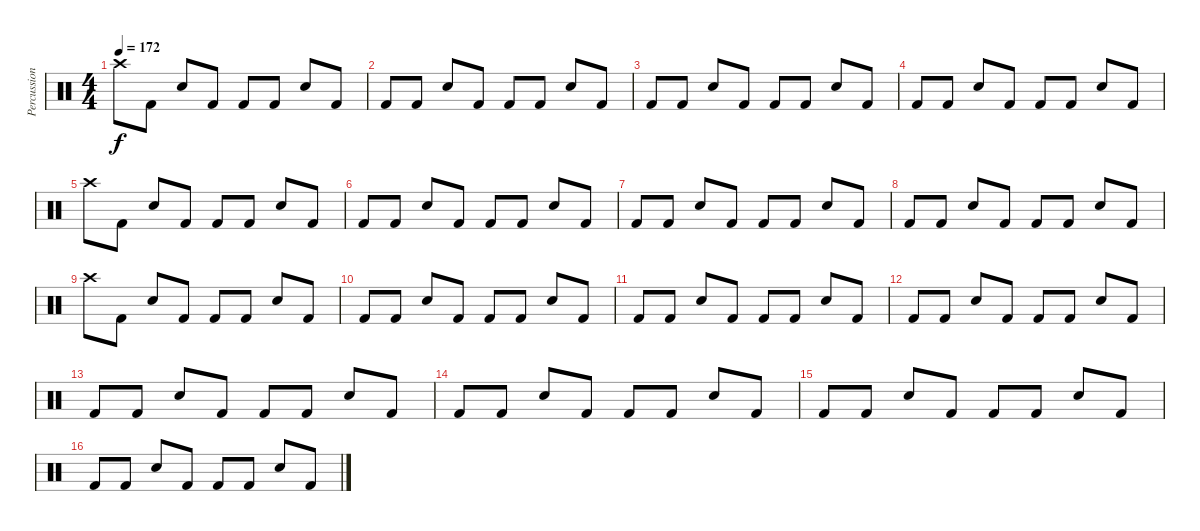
\track ("Percussion" "Percussion") {instrument percussion}
\staff {score}
\articulation defaults
\ts (4 4)
\tempo 172
\clef neutral
\ks c "Crash high (hit)".8{dy f} "Kick (hit) 2".8 "Snare (hit) 2".8 "Kick (hit) 2".8 "Kick (hit) 2".8 "Kick (hit) 2".8 "Snare (hit) 2".8 "Kick (hit) 2".8
|
"Kick (hit) 2".8 "Kick (hit) 2".8 "Snare (hit) 2".8 "Kick (hit) 2".8 "Kick (hit) 2".8 "Kick (hit) 2".8 "Snare (hit) 2".8 "Kick (hit) 2".8 |
"Kick (hit) 2".8 "Kick (hit) 2".8 "Snare (hit) 2".8 "Kick (hit) 2".8 "Kick (hit) 2".8 "Kick (hit) 2".8 "Snare (hit) 2".8 "Kick (hit) 2".8 |
"Kick (hit) 2".8 "Kick (hit) 2".8 "Snare (hit) 2".8 "Kick (hit) 2".8 "Kick (hit) 2".8 "Kick (hit) 2".8 "Snare (hit) 2".8 "Kick (hit) 2".8 |
"Crash high (hit)".8 "Kick (hit) 2".8 "Snare (hit) 2".8 "Kick (hit) 2".8 "Kick (hit) 2".8 "Kick (hit) 2".8 "Snare (hit) 2".8 "Kick (hit) 2".8 |
"Kick (hit) 2".8 "Kick (hit) 2".8 "Snare (hit) 2".8 "Kick (hit) 2".8 "Kick (hit) 2".8 "Kick (hit) 2".8 "Snare (hit) 2".8 "Kick (hit) 2".8 |
"Kick (hit) 2".8 "Kick (hit) 2".8 "Snare (hit) 2".8 "Kick (hit) 2".8 "Kick (hit) 2".8 "Kick (hit) 2".8 "Snare (hit) 2".8 "Kick (hit) 2".8 |
"Kick (hit) 2".8 "Kick (hit) 2".8 "Snare (hit) 2".8 "Kick (hit) 2".8 "Kick (hit) 2".8 "Kick (hit) 2".8 "Snare (hit) 2".8 "Kick (hit) 2".8 |
"Crash high (hit)".8 "Kick (hit) 2".8 "Snare (hit) 2".8 "Kick (hit) 2".8 "Kick (hit) 2".8 "Kick (hit) 2".8 "Snare (hit) 2".8 "Kick (hit) 2".8 |
"Kick (hit) 2".8 "Kick (hit) 2".8 "Snare (hit) 2".8 "Kick (hit) 2".8 "Kick (hit) 2".8 "Kick (hit) 2".8 "Snare (hit) 2".8 "Kick (hit) 2".8 |
"Kick (hit) 2".8 "Kick (hit) 2".8 "Snare (hit) 2".8 "Kick (hit) 2".8 "Kick (hit) 2".8 "Kick (hit) 2".8 "Snare (hit) 2".8 "Kick (hit) 2".8 |
"Kick (hit) 2".8 "Kick (hit) 2".8 "Snare (hit) 2".8 "Kick (hit) 2".8 "Kick (hit) 2".8 "Kick (hit) 2".8 "Snare (hit) 2".8 "Kick (hit) 2".8 |
"Kick (hit) 2".8 "Kick (hit) 2".8 "Snare (hit) 2".8 "Kick (hit) 2".8 "Kick (hit) 2".8 "Kick (hit) 2".8 "Snare (hit) 2".8 "Kick (hit) 2".8 |
"Kick (hit) 2".8 "Kick (hit) 2".8 "Snare (hit) 2".8 "Kick (hit) 2".8 "Kick (hit) 2".8 "Kick (hit) 2".8 "Snare (hit) 2".8 "Kick (hit) 2".8 |
"Kick (hit) 2".8 "Kick (hit) 2".8 "Snare (hit) 2".8 "Kick (hit) 2".8 "Kick (hit) 2".8 "Kick (hit) 2".8 "Snare (hit) 2".8 "Kick (hit) 2".8 |
"Kick (hit) 2".8 "Kick (hit) 2".8 "Snare (hit) 2".8 "Kick (hit) 2".8 "Kick (hit) 2".8 "Kick (hit) 2".8 "Snare (hit) 2".8 "Kick (hit) 2".8
